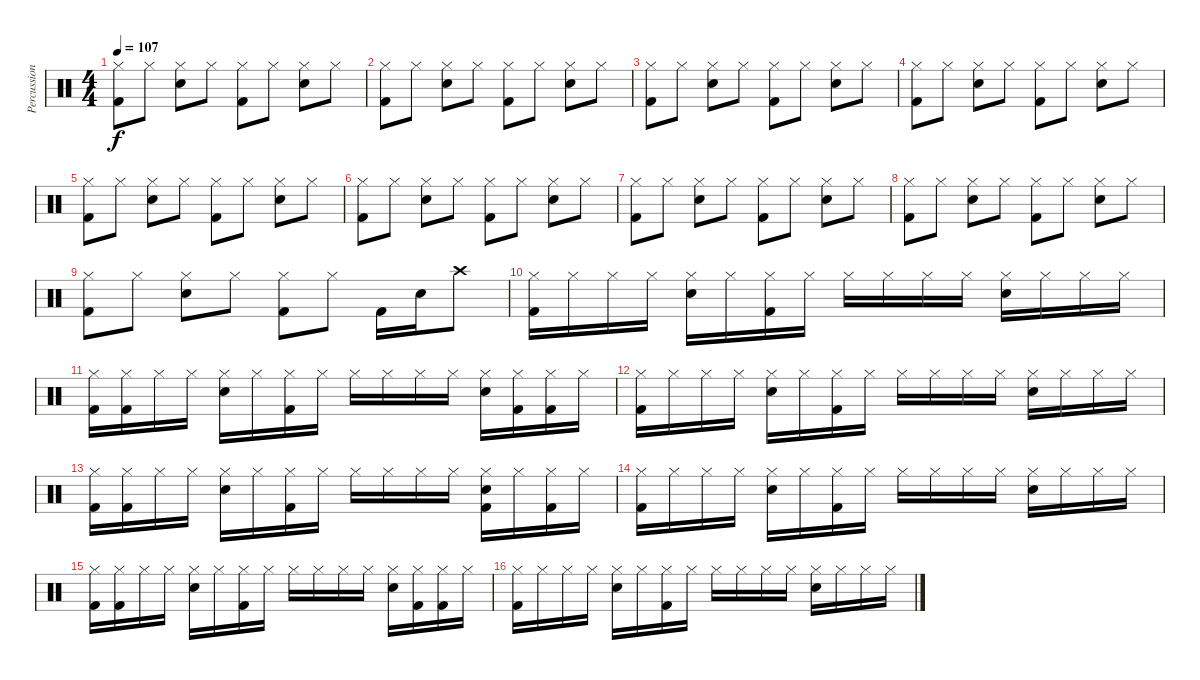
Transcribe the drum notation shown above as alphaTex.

\track ("Percussion" "Percussion") {instrument percussion}
\staff {score}
\articulation defaults
\ts (4 4)
\tempo 107
\clef neutral
\ks c
("Hi-Hat (closed)" "Kick (hit) 2").8{dy f} "Hi-Hat (closed)".8 ("Hi-Hat (closed)" "Snare (hit) 2").8 "Hi-Hat (closed)".8 ("Hi-Hat (closed)" "Kick (hit) 2").8 "Hi-Hat (closed)".8 ("Hi-Hat (closed)" "Snare (hit) 2").8 "Hi-Hat (closed)".8 |
("Hi-Hat (closed)" "Kick (hit) 2").8 "Hi-Hat (closed)".8 ("Hi-Hat (closed)" "Snare (hit) 2").8 "Hi-Hat (closed)".8 ("Hi-Hat (closed)" "Kick (hit) 2").8 "Hi-Hat (closed)".8 ("Hi-Hat (closed)" "Snare (hit) 2").8 "Hi-Hat (closed)".8 |
("Hi-Hat (closed)" "Kick (hit) 2").8 "Hi-Hat (closed)".8 ("Hi-Hat (closed)" "Snare (hit) 2").8 "Hi-Hat (closed)".8 ("Hi-Hat (closed)" "Kick (hit) 2").8 "Hi-Hat (closed)".8 ("Hi-Hat (closed)" "Snare (hit) 2").8 "Hi-Hat (closed)".8 |
("Hi-Hat (closed)" "Kick (hit) 2").8 "Hi-Hat (closed)".8 ("Hi-Hat (closed)" "Snare (hit) 2").8 "Hi-Hat (closed)".8 ("Hi-Hat (closed)" "Kick (hit) 2").8 "Hi-Hat (closed)".8 ("Hi-Hat (closed)" "Snare (hit) 2").8 "Hi-Hat (closed)".8 |
("Hi-Hat (closed)" "Kick (hit) 2").8 "Hi-Hat (closed)".8 ("Hi-Hat (closed)" "Snare (hit) 2").8 "Hi-Hat (closed)".8 ("Hi-Hat (closed)" "Kick (hit) 2").8 "Hi-Hat (closed)".8 ("Hi-Hat (closed)" "Snare (hit) 2").8 "Hi-Hat (closed)".8 |
("Hi-Hat (closed)" "Kick (hit) 2").8 "Hi-Hat (closed)".8 ("Hi-Hat (closed)" "Snare (hit) 2").8 "Hi-Hat (closed)".8 ("Hi-Hat (closed)" "Kick (hit) 2").8 "Hi-Hat (closed)".8 ("Hi-Hat (closed)" "Snare (hit) 2").8 "Hi-Hat (closed)".8 |
("Hi-Hat (closed)" "Kick (hit) 2").8 "Hi-Hat (closed)".8 ("Hi-Hat (closed)" "Snare (hit) 2").8 "Hi-Hat (closed)".8 ("Hi-Hat (closed)" "Kick (hit) 2").8 "Hi-Hat (closed)".8 ("Hi-Hat (closed)" "Snare (hit) 2").8 "Hi-Hat (closed)".8 |
("Hi-Hat (closed)" "Kick (hit) 2").8 "Hi-Hat (closed)".8 ("Hi-Hat (closed)" "Snare (hit) 2").8 "Hi-Hat (closed)".8 ("Hi-Hat (closed)" "Kick (hit) 2").8 "Hi-Hat (closed)".8 ("Hi-Hat (closed)" "Snare (hit) 2").8 "Hi-Hat (closed)".8 |
("Hi-Hat (closed)" "Kick (hit) 2").8 "Hi-Hat (closed)".8 ("Hi-Hat (closed)" "Snare (hit) 2").8 "Hi-Hat (closed)".8 ("Hi-Hat (closed)" "Kick (hit) 2").8 "Hi-Hat (closed)".8 "Kick (hit) 2".16 "Snare (hit) 2".16 "Crash high (hit)".8 |
("Hi-Hat (closed)" "Kick (hit) 2").16 "Hi-Hat (closed)".16 "Hi-Hat (closed)".16 "Hi-Hat (closed)".16 ("Hi-Hat (closed)" "Snare (hit) 2").16 "Hi-Hat (closed)".16 ("Hi-Hat (closed)" "Kick (hit) 2").16 "Hi-Hat (closed)".16 "Hi-Hat (closed)".16 "Hi-Hat (closed)".16 "Hi-Hat (closed)".16 "Hi-Hat (closed)".16 ("Hi-Hat (closed)" "Snare (hit) 2").16 "Hi-Hat (closed)".16 "Hi-Hat (closed)".16 "Hi-Hat (closed)".16 |
("Hi-Hat (closed)" "Kick (hit) 2").16 ("Hi-Hat (closed)" "Kick (hit) 2").16 "Hi-Hat (closed)".16 "Hi-Hat (closed)".16 ("Hi-Hat (closed)" "Snare (hit) 2").16 "Hi-Hat (closed)".16 ("Hi-Hat (closed)" "Kick (hit) 2").16 "Hi-Hat (closed)".16 "Hi-Hat (closed)".16 "Hi-Hat (closed)".16 "Hi-Hat (closed)".16 "Hi-Hat (closed)".16 ("Hi-Hat (closed)" "Snare (hit) 2").16 ("Hi-Hat (closed)" "Kick (hit) 2").16 ("Hi-Hat (closed)" "Kick (hit) 2").16 "Hi-Hat (closed)".16 |
("Hi-Hat (closed)" "Kick (hit) 2").16 "Hi-Hat (closed)".16 "Hi-Hat (closed)".16 "Hi-Hat (closed)".16 ("Hi-Hat (closed)" "Snare (hit) 2").16 "Hi-Hat (closed)".16 ("Hi-Hat (closed)" "Kick (hit) 2").16 "Hi-Hat (closed)".16 "Hi-Hat (closed)".16 "Hi-Hat (closed)".16 "Hi-Hat (closed)".16 "Hi-Hat (closed)".16 ("Hi-Hat (closed)" "Snare (hit) 2").16 "Hi-Hat (closed)".16 "Hi-Hat (closed)".16 "Hi-Hat (closed)".16 |
("Hi-Hat (closed)" "Kick (hit) 2").16 ("Hi-Hat (closed)" "Kick (hit) 2").16 "Hi-Hat (closed)".16 "Hi-Hat (closed)".16 ("Hi-Hat (closed)" "Snare (hit) 2").16 "Hi-Hat (closed)".16 ("Hi-Hat (closed)" "Kick (hit) 2").16 "Hi-Hat (closed)".16 "Hi-Hat (closed)".16 "Hi-Hat (closed)".16 "Hi-Hat (closed)".16 "Hi-Hat (closed)".16 ("Hi-Hat (closed)" "Snare (hit) 2" "Kick (hit) 2").16 "Hi-Hat (closed)".16 ("Hi-Hat (closed)" "Kick (hit) 2").16 "Hi-Hat (closed)".16 |
("Hi-Hat (closed)" "Kick (hit) 2").16 "Hi-Hat (closed)".16 "Hi-Hat (closed)".16 "Hi-Hat (closed)".16 ("Hi-Hat (closed)" "Snare (hit) 2").16 "Hi-Hat (closed)".16 ("Hi-Hat (closed)" "Kick (hit) 2").16 "Hi-Hat (closed)".16 "Hi-Hat (closed)".16 "Hi-Hat (closed)".16 "Hi-Hat (closed)".16 "Hi-Hat (closed)".16 ("Hi-Hat (closed)" "Snare (hit) 2").16 "Hi-Hat (closed)".16 "Hi-Hat (closed)".16 "Hi-Hat (closed)".16 |
("Hi-Hat (closed)" "Kick (hit) 2").16 ("Hi-Hat (closed)" "Kick (hit) 2").16 "Hi-Hat (closed)".16 "Hi-Hat (closed)".16 ("Hi-Hat (closed)" "Snare (hit) 2").16 "Hi-Hat (closed)".16 ("Hi-Hat (closed)" "Kick (hit) 2").16 "Hi-Hat (closed)".16 "Hi-Hat (closed)".16 "Hi-Hat (closed)".16 "Hi-Hat (closed)".16 "Hi-Hat (closed)".16 ("Hi-Hat (closed)" "Snare (hit) 2").16 ("Hi-Hat (closed)" "Kick (hit) 2").16 ("Hi-Hat (closed)" "Kick (hit) 2").16 "Hi-Hat (closed)".16 |
("Hi-Hat (closed)" "Kick (hit) 2").16 "Hi-Hat (closed)".16 "Hi-Hat (closed)".16 "Hi-Hat (closed)".16 ("Hi-Hat (closed)" "Snare (hit) 2").16 "Hi-Hat (closed)".16 ("Hi-Hat (closed)" "Kick (hit) 2").16 "Hi-Hat (closed)".16 "Hi-Hat (closed)".16 "Hi-Hat (closed)".16 "Hi-Hat (closed)".16 "Hi-Hat (closed)".16 ("Hi-Hat (closed)" "Snare (hit) 2").16 "Hi-Hat (closed)".16 "Hi-Hat (closed)".16 "Hi-Hat (closed)".16
